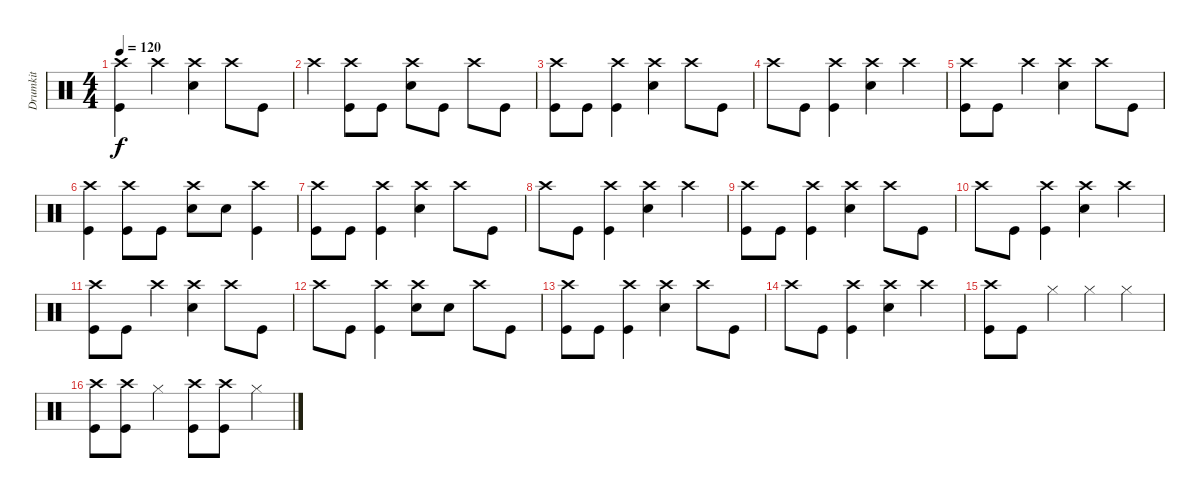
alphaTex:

\track ("Drumkit" "Drumkit") {instrument percussion}
\staff {score}
\articulation defaults
\ts (4 4)
\tempo 120
\clef neutral
\ks c
("Crash high (hit)" "Kick (hit)").4{dy f} "Crash high (hit)".4 ("Crash high (hit)" "Snare (hit) 2").4 "Crash high (hit)".8 "Kick (hit)".8 |
"Crash high (hit)".4 ("Crash high (hit)" "Kick (hit)").8 "Kick (hit)".8 ("Crash high (hit)" "Snare (hit) 2").8 "Kick (hit)".8 "Crash high (hit)".8 "Kick (hit)".8 |
("Crash high (hit)" "Kick (hit)").8 "Kick (hit)".8 ("Crash high (hit)" "Kick (hit)").4 ("Crash high (hit)" "Snare (hit) 2").4 "Crash high (hit)".8 "Kick (hit)".8 |
"Crash high (hit)".8 "Kick (hit)".8 ("Crash high (hit)" "Kick (hit)").4 ("Crash high (hit)" "Snare (hit) 2").4 "Crash high (hit)".4 |
("Crash high (hit)" "Kick (hit)").8 "Kick (hit)".8 "Crash high (hit)".4 ("Crash high (hit)" "Snare (hit) 2").4 "Crash high (hit)".8 "Kick (hit)".8 |
("Crash high (hit)" "Kick (hit)").4 ("Crash high (hit)" "Kick (hit)").8 "Kick (hit)".8 ("Crash high (hit)" "Snare (hit) 2").8 "Snare (hit) 2".8 ("Crash high (hit)" "Kick (hit)").4 |
("Crash high (hit)" "Kick (hit)").8 "Kick (hit)".8 ("Crash high (hit)" "Kick (hit)").4 ("Crash high (hit)" "Snare (hit) 2").4 "Crash high (hit)".8 "Kick (hit)".8 |
"Crash high (hit)".8 "Kick (hit)".8 ("Crash high (hit)" "Kick (hit)").4 ("Crash high (hit)" "Snare (hit) 2").4 "Crash high (hit)".4 |
("Crash high (hit)" "Kick (hit)").8 "Kick (hit)".8 ("Crash high (hit)" "Kick (hit)").4 ("Crash high (hit)" "Snare (hit) 2").4 "Crash high (hit)".8 "Kick (hit)".8 |
"Crash high (hit)".8 "Kick (hit)".8 ("Crash high (hit)" "Kick (hit)").4 ("Crash high (hit)" "Snare (hit) 2").4 "Crash high (hit)".4 |
("Crash high (hit)" "Kick (hit)").8 "Kick (hit)".8 "Crash high (hit)".4 ("Crash high (hit)" "Snare (hit) 2").4 "Crash high (hit)".8 "Kick (hit)".8 |
"Crash high (hit)".8 "Kick (hit)".8 ("Crash high (hit)" "Kick (hit)").4 ("Crash high (hit)" "Snare (hit) 2").8 "Snare (hit) 2".8 "Crash high (hit)".8 "Kick (hit)".8 |
("Crash high (hit)" "Kick (hit)").8 "Kick (hit)".8 ("Crash high (hit)" "Kick (hit)").4 ("Crash high (hit)" "Snare (hit) 2").4 "Crash high (hit)".8 "Kick (hit)".8 |
"Crash high (hit)".8 "Kick (hit)".8 ("Crash high (hit)" "Kick (hit)").4 ("Crash high (hit)" "Snare (hit) 2").4 "Crash high (hit)".4 |
("Crash high (hit)" "Kick (hit)").8 "Kick (hit)".8 "Hi-Hat (closed)".4 "Hi-Hat (closed)".4 "Hi-Hat (closed)".4 |
("Crash high (hit)" "Kick (hit)").8 ("Crash high (hit)" "Kick (hit)").8 "Hi-Hat (closed)".4 ("Crash high (hit)" "Kick (hit)").8 ("Crash high (hit)" "Kick (hit)").8 "Hi-Hat (closed)".4
